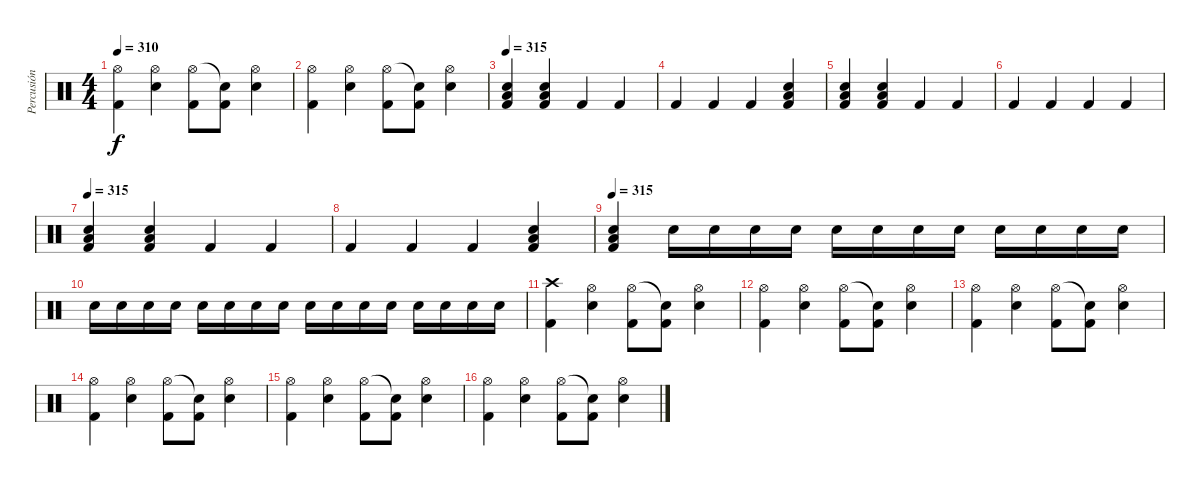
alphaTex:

\track ("Percusión" "Percusión") {instrument percussion}
\staff {score}
\articulation defaults
\ts (4 4)
\tempo 310
\clef neutral
\ks c
("Hi-Hat (open)" "Kick (hit) 2").4{dy f} ("Hi-Hat (open)" "Snare (hit) 2").4 ("Hi-Hat (open)" "Kick (hit) 2").8 ("Snare (hit)"{t} "Kick (hit) 2").8 ("Hi-Hat (open)" "Snare (hit) 2").4 |
("Hi-Hat (open)" "Kick (hit) 2").4 ("Hi-Hat (open)" "Snare (hit) 2").4 ("Hi-Hat (open)" "Kick (hit) 2").8 ("Snare (hit)"{t} "Kick (hit) 2").8 ("Hi-Hat (open)" "Snare (hit) 2").4 |
\tempo 315
("Low Floor Tom (hit)" "Snare (hit) 2" "Kick (hit) 2").4 ("Low Floor Tom (hit)" "Snare (hit) 2" "Kick (hit) 2").4 "Kick (hit) 2".4 "Kick (hit) 2".4 |
"Kick (hit) 2".4 "Kick (hit) 2".4 "Kick (hit) 2".4 ("Low Floor Tom (hit)" "Snare (hit) 2" "Kick (hit) 2").4 |
("Low Floor Tom (hit)" "Snare (hit) 2" "Kick (hit) 2").4 ("Low Floor Tom (hit)" "Snare (hit) 2" "Kick (hit) 2").4 "Kick (hit) 2".4 "Kick (hit) 2".4 |
"Kick (hit) 2".4 "Kick (hit) 2".4 "Kick (hit) 2".4 "Kick (hit) 2".4 |
\tempo 315
("Low Floor Tom (hit)" "Snare (hit) 2" "Kick (hit) 2").4 ("Low Floor Tom (hit)" "Snare (hit) 2" "Kick (hit) 2").4 "Kick (hit) 2".4 "Kick (hit) 2".4 |
"Kick (hit) 2".4 "Kick (hit) 2".4 "Kick (hit) 2".4 ("Low Floor Tom (hit)" "Snare (hit) 2" "Kick (hit) 2").4 |
\tempo 315
("Low Floor Tom (hit)" "Snare (hit) 2" "Kick (hit) 2").4 "Snare (hit) 2".16 "Snare (hit) 2".16 "Snare (hit) 2".16 "Snare (hit) 2".16 "Snare (hit) 2".16 "Snare (hit) 2".16 "Snare (hit) 2".16 "Snare (hit) 2".16 "Snare (hit) 2".16 "Snare (hit) 2".16 "Snare (hit) 2".16 "Snare (hit) 2".16 |
"Snare (hit) 2".16 "Snare (hit) 2".16 "Snare (hit) 2".16 "Snare (hit) 2".16 "Snare (hit) 2".16 "Snare (hit) 2".16 "Snare (hit) 2".16 "Snare (hit) 2".16 "Snare (hit) 2".16 "Snare (hit) 2".16 "Snare (hit) 2".16 "Snare (hit) 2".16 "Snare (hit) 2".16 "Snare (hit) 2".16 "Snare (hit) 2".16 "Snare (hit) 2".16 |
("Crash high (hit)" "Kick (hit) 2").4 ("Hi-Hat (open)" "Snare (hit) 2").4 ("Hi-Hat (open)" "Kick (hit) 2").8 ("Snare (hit)"{t} "Kick (hit) 2").8 ("Hi-Hat (open)" "Snare (hit) 2").4 |
("Hi-Hat (open)" "Kick (hit) 2").4 ("Hi-Hat (open)" "Snare (hit) 2").4 ("Hi-Hat (open)" "Kick (hit) 2").8 ("Snare (hit)"{t} "Kick (hit) 2").8 ("Hi-Hat (open)" "Snare (hit) 2").4 |
("Hi-Hat (open)" "Kick (hit) 2").4 ("Hi-Hat (open)" "Snare (hit) 2").4 ("Hi-Hat (open)" "Kick (hit) 2").8 ("Snare (hit)"{t} "Kick (hit) 2").8 ("Hi-Hat (open)" "Snare (hit) 2").4 |
("Hi-Hat (open)" "Kick (hit) 2").4 ("Hi-Hat (open)" "Snare (hit) 2").4 ("Hi-Hat (open)" "Kick (hit) 2").8 ("Snare (hit)"{t} "Kick (hit) 2").8 ("Hi-Hat (open)" "Snare (hit) 2").4 |
("Hi-Hat (open)" "Kick (hit) 2").4 ("Hi-Hat (open)" "Snare (hit) 2").4 ("Hi-Hat (open)" "Kick (hit) 2").8 ("Snare (hit)"{t} "Kick (hit) 2").8 ("Hi-Hat (open)" "Snare (hit) 2").4 |
("Hi-Hat (open)" "Kick (hit) 2").4 ("Hi-Hat (open)" "Snare (hit) 2").4 ("Hi-Hat (open)" "Kick (hit) 2").8 ("Snare (hit)"{t} "Kick (hit) 2").8 ("Hi-Hat (open)" "Snare (hit) 2").4
